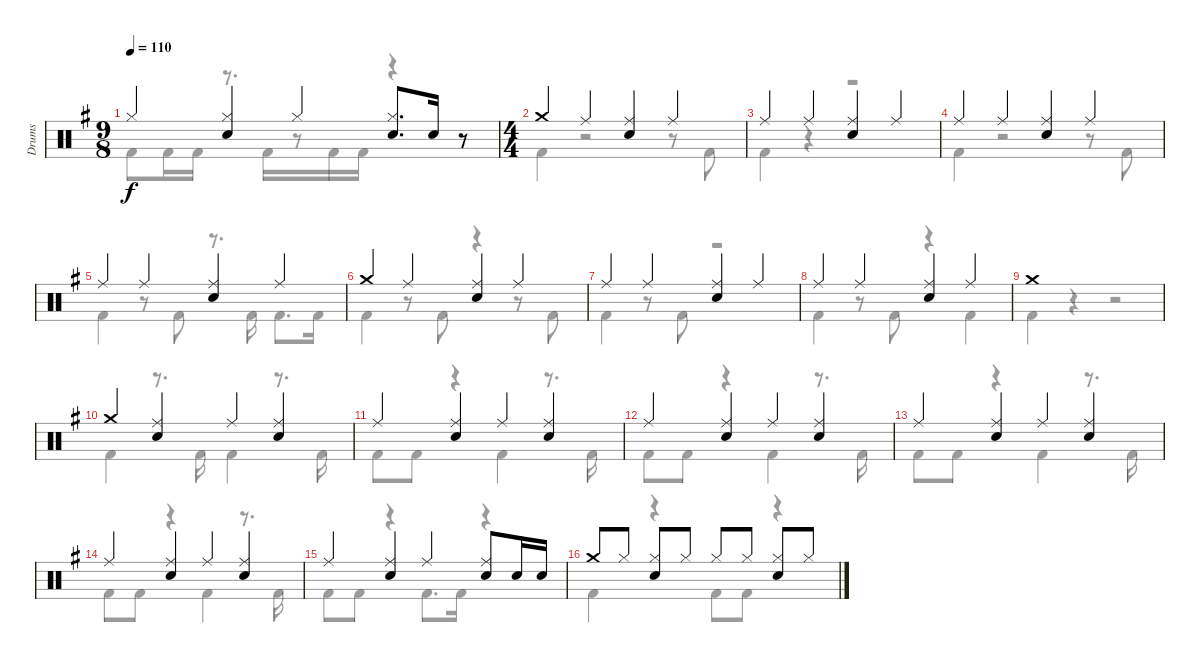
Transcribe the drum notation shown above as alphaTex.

\track ("Drums" "Drums") {instrument percussion}
\staff {score}
\articulation defaults
\voice
\ts (9 8)
\tempo 110
\clef neutral
\ks g "Hi-Hat (closed)".4{dy f}
("Hi-Hat (closed)" "Snare (hit) 2").4 "Hi-Hat (closed)".4 ("Hi-Hat (closed)" "Snare (hit) 2").8{d} "Snare (hit) 2".16 r.8 |
\ts (4 4)
"Crash medium (hit)".4 "Ride (middle)".4 ("Ride (middle)" "Snare (hit) 2").4 "Ride (middle)".4 |
"Ride (middle)".4 "Ride (middle)".4 ("Ride (middle)" "Snare (hit) 2").4 "Ride (middle)".4 |
"Ride (middle)".4 "Ride (middle)".4 ("Ride (middle)" "Snare (hit) 2").4 "Ride (middle)".4 |
"Ride (middle)".4 "Ride (middle)".4 ("Ride (middle)" "Snare (hit) 2").4 "Ride (middle)".4 |
"Crash medium (hit)".4 "Ride (middle)".4 ("Ride (middle)" "Snare (hit) 2").4 "Ride (middle)".4 |
"Ride (middle)".4 "Ride (middle)".4 ("Ride (middle)" "Snare (hit) 2").4 "Ride (middle)".4 |
"Ride (middle)".4 "Ride (middle)".4 ("Ride (middle)" "Snare (hit) 2").4 "Ride (middle)".4 |
"Crash medium (hit)".1 |
"Crash medium (hit)".4 ("Ride (middle)" "Snare (hit) 2").4 "Ride (middle)".4 ("Ride (middle)" "Snare (hit) 2").4 |
"Ride (middle)".4 ("Ride (middle)" "Snare (hit) 2").4 "Ride (middle)".4 ("Ride (middle)" "Snare (hit) 2").4 |
"Ride (middle)".4 ("Ride (middle)" "Snare (hit) 2").4 "Ride (middle)".4 ("Ride (middle)" "Snare (hit) 2").4 |
"Ride (middle)".4 ("Ride (middle)" "Snare (hit) 2").4 "Ride (middle)".4 ("Ride (middle)" "Snare (hit) 2").4 |
"Ride (middle)".4 ("Ride (middle)" "Snare (hit) 2").4 "Ride (middle)".4 ("Ride (middle)" "Snare (hit) 2").4 |
"Ride (middle)".4 ("Ride (middle)" "Snare (hit) 2").4 "Ride (middle)".4 ("Ride (middle)" "Snare (hit) 2").8 "Snare (hit) 2".16 "Snare (hit) 2".16 |
"Crash medium (hit)".8 "Hi-Hat (closed)".8 ("Hi-Hat (closed)" "Snare (hit) 2").8 "Hi-Hat (closed)".8 "Hi-Hat (closed)".8 "Hi-Hat (closed)".8 ("Hi-Hat (closed)" "Snare (hit) 2").8 "Hi-Hat (closed)".8
\voice
\clef neutral
\ottava regular
\simile none
\ks g "Kick (hit) 2".8{dy f} "Kick (hit) 2".16 "Kick (hit) 2".16
r.8{d} "Kick (hit) 2".16 r.8 "Kick (hit) 2".16 "Kick (hit) 2".16 r.4 r.8 |
"Kick (hit) 2".4 r.2 r.8 "Kick (hit) 2".8 |
"Kick (hit) 2".4 r.4 r.2 |
"Kick (hit) 2".4 r.2 r.8 "Kick (hit) 2".8 |
"Kick (hit) 2".4 r.8 "Kick (hit) 2".8 r.8{d} "Kick (hit) 2".16 "Kick (hit) 2".8{d} "Kick (hit) 2".16 |
"Kick (hit) 2".4 r.8 "Kick (hit) 2".8 r.4 r.8 "Kick (hit) 2".8 |
"Kick (hit) 2".4 r.8 "Kick (hit) 2".8 r.2 |
"Kick (hit) 2".4 r.8 "Kick (hit) 2".8 r.4 "Kick (hit) 2".4 |
"Kick (hit) 2".4 r.4 r.2 |
"Kick (hit) 2".4 r.8{d} "Kick (hit) 2".16 "Kick (hit) 2".4 r.8{d} "Kick (hit) 2".16 |
"Kick (hit) 2".8 "Kick (hit) 2".8 r.4 "Kick (hit) 2".4 r.8{d} "Kick (hit) 2".16 |
"Kick (hit) 2".8 "Kick (hit) 2".8 r.4 "Kick (hit) 2".4 r.8{d} "Kick (hit) 2".16 |
"Kick (hit) 2".8 "Kick (hit) 2".8 r.4 "Kick (hit) 2".4 r.8{d} "Kick (hit) 2".16 |
"Kick (hit) 2".8 "Kick (hit) 2".8 r.4 "Kick (hit) 2".4 r.8{d} "Kick (hit) 2".16 |
"Kick (hit) 2".8 "Kick (hit) 2".8 r.4 "Kick (hit) 2".8{d} "Kick (hit) 2".16 r.4 |
"Kick (hit) 2".4 r.4 "Kick (hit) 2".8 "Kick (hit) 2".8 r.4
